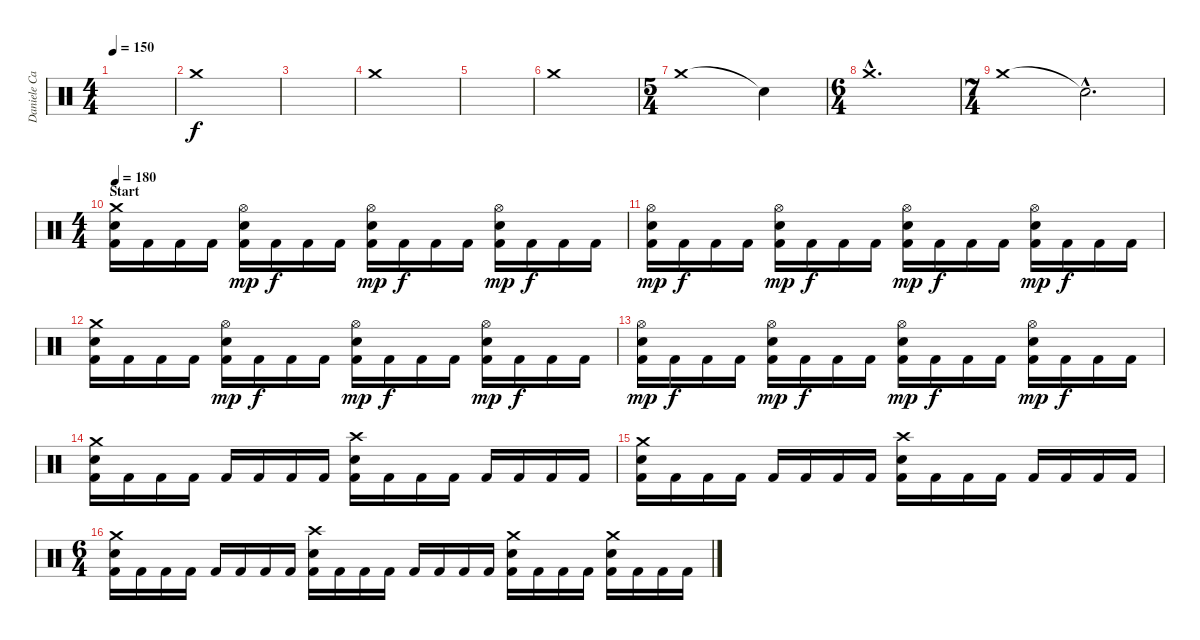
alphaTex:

\track ("Daniele Carbonera" "Daniele Ca") {instrument percussion}
\staff {score}
\articulation defaults
\ts (4 4)
\tempo 150
\clef neutral
\ks c
|
"Crash medium (hit)".1 |
|
"Crash medium (hit)".1 |
|
"Crash medium (hit)".1 |
\ts (5 4)
"Crash medium (hit)".1 "Snare (hit)"{t}.4 |
\ts (6 4)
"Crash medium (hit)"{hac}.1{d} |
\ts (7 4)
"Crash medium (hit)".1 "Snare (hit)"{hac t}.2{d} |
\ts (4 4)
\section ("" "Start")
\tempo 180
("Kick (hit) 2" "Crash medium (hit)" "Snare (hit) 2").16 "Kick (hit) 2".16 "Kick (hit) 2".16 "Kick (hit) 2".16 ("Kick (hit) 2" "Hi-Hat (open)" "Snare (hit) 2").16{dy mp} "Kick (hit) 2".16{dy f} "Kick (hit) 2".16 "Kick (hit) 2".16 ("Kick (hit) 2" "Hi-Hat (open)" "Snare (hit) 2").16{dy mp} "Kick (hit) 2".16{dy f} "Kick (hit) 2".16 "Kick (hit) 2".16 ("Kick (hit) 2" "Hi-Hat (open)" "Snare (hit) 2").16{dy mp} "Kick (hit) 2".16{dy f} "Kick (hit) 2".16 "Kick (hit) 2".16 |
("Kick (hit) 2" "Hi-Hat (open)" "Snare (hit) 2").16{dy mp} "Kick (hit) 2".16{dy f} "Kick (hit) 2".16 "Kick (hit) 2".16 ("Kick (hit) 2" "Hi-Hat (open)" "Snare (hit) 2").16{dy mp} "Kick (hit) 2".16{dy f} "Kick (hit) 2".16 "Kick (hit) 2".16 ("Kick (hit) 2" "Hi-Hat (open)" "Snare (hit) 2").16{dy mp} "Kick (hit) 2".16{dy f} "Kick (hit) 2".16 "Kick (hit) 2".16 ("Kick (hit) 2" "Hi-Hat (open)" "Snare (hit) 2").16{dy mp} "Kick (hit) 2".16{dy f} "Kick (hit) 2".16 "Kick (hit) 2".16 |
("Kick (hit) 2" "Crash medium (hit)" "Snare (hit) 2").16 "Kick (hit) 2".16 "Kick (hit) 2".16 "Kick (hit) 2".16 ("Kick (hit) 2" "Hi-Hat (open)" "Snare (hit) 2").16{dy mp} "Kick (hit) 2".16{dy f} "Kick (hit) 2".16 "Kick (hit) 2".16 ("Kick (hit) 2" "Hi-Hat (open)" "Snare (hit) 2").16{dy mp} "Kick (hit) 2".16{dy f} "Kick (hit) 2".16 "Kick (hit) 2".16 ("Kick (hit) 2" "Hi-Hat (open)" "Snare (hit) 2").16{dy mp} "Kick (hit) 2".16{dy f} "Kick (hit) 2".16 "Kick (hit) 2".16 |
("Kick (hit) 2" "Hi-Hat (open)" "Snare (hit) 2").16{dy mp} "Kick (hit) 2".16{dy f} "Kick (hit) 2".16 "Kick (hit) 2".16 ("Kick (hit) 2" "Hi-Hat (open)" "Snare (hit) 2").16{dy mp} "Kick (hit) 2".16{dy f} "Kick (hit) 2".16 "Kick (hit) 2".16 ("Kick (hit) 2" "Hi-Hat (open)" "Snare (hit) 2").16{dy mp} "Kick (hit) 2".16{dy f} "Kick (hit) 2".16 "Kick (hit) 2".16 ("Kick (hit) 2" "Hi-Hat (open)" "Snare (hit) 2").16{dy mp} "Kick (hit) 2".16{dy f} "Kick (hit) 2".16 "Kick (hit) 2".16 |
("Kick (hit) 2" "Crash medium (hit)" "Snare (hit) 2").16 "Kick (hit) 2".16 "Kick (hit) 2".16 "Kick (hit) 2".16 "Kick (hit) 2".16 "Kick (hit) 2".16 "Kick (hit) 2".16 "Kick (hit) 2".16 ("Kick (hit) 2" "Crash high (hit)" "Snare (hit) 2").16 "Kick (hit) 2".16 "Kick (hit) 2".16 "Kick (hit) 2".16 "Kick (hit) 2".16 "Kick (hit) 2".16 "Kick (hit) 2".16 "Kick (hit) 2".16 |
("Kick (hit) 2" "Crash medium (hit)" "Snare (hit) 2").16 "Kick (hit) 2".16 "Kick (hit) 2".16 "Kick (hit) 2".16 "Kick (hit) 2".16 "Kick (hit) 2".16 "Kick (hit) 2".16 "Kick (hit) 2".16 ("Kick (hit) 2" "Crash high (hit)" "Snare (hit) 2").16 "Kick (hit) 2".16 "Kick (hit) 2".16 "Kick (hit) 2".16 "Kick (hit) 2".16 "Kick (hit) 2".16 "Kick (hit) 2".16 "Kick (hit) 2".16 |
\ts (6 4)
("Kick (hit) 2" "Crash medium (hit)" "Snare (hit) 2").16 "Kick (hit) 2".16 "Kick (hit) 2".16 "Kick (hit) 2".16 "Kick (hit) 2".16 "Kick (hit) 2".16 "Kick (hit) 2".16 "Kick (hit) 2".16 ("Kick (hit) 2" "Crash high (hit)" "Snare (hit) 2").16 "Kick (hit) 2".16 "Kick (hit) 2".16 "Kick (hit) 2".16 "Kick (hit) 2".16 "Kick (hit) 2".16 "Kick (hit) 2".16 "Kick (hit) 2".16 ("Kick (hit) 2" "Crash medium (hit)" "Snare (hit) 2").16 "Kick (hit) 2".16 "Kick (hit) 2".16 "Kick (hit) 2".16 ("Kick (hit) 2" "Crash medium (hit)" "Snare (hit) 2").16 "Kick (hit) 2".16 "Kick (hit) 2".16 "Kick (hit) 2".16
